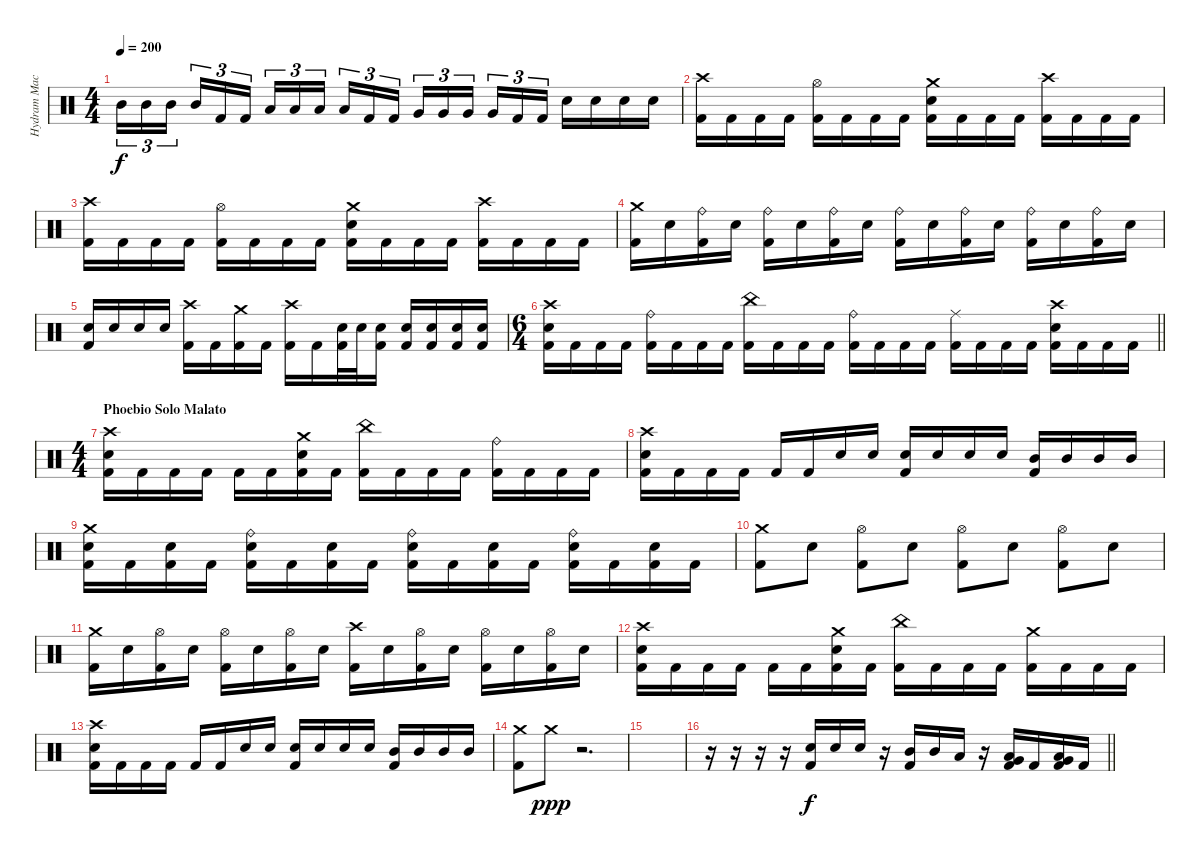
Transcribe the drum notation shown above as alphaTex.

\track ("Hydram Machine" "Hydram Mac") {instrument percussion}
\staff {score}
\articulation defaults
\ts (4 4)
\tempo 200
\clef neutral
\ks c "Mid Tom (hit)".16{tu (3 2) dy f} "Mid Tom (hit)".16{tu (3 2)} "Mid Tom (hit)".16{tu (3 2) beam splitsecondary} "Mid Tom (hit)".16{tu (3 2)} "Kick (hit) 2".16{tu (3 2)} "Kick (hit) 2".16{tu (3 2)} "Low Tom (hit)".16{tu (3 2)} "Low Tom (hit)".16{tu (3 2)} "Low Tom (hit)".16{tu (3 2) beam splitsecondary} "Low Tom (hit)".16{tu (3 2)} "Kick (hit) 2".16{tu (3 2)} "Kick (hit) 2".16{tu (3 2)} "Very Low Tom (hit)".16{tu (3 2)} "Very Low Tom (hit)".16{tu (3 2)} "Very Low Tom (hit)".16{tu (3 2) beam splitsecondary} "Very Low Tom (hit)".16{tu (3 2)} "Kick (hit) 2".16{tu (3 2)} "Kick (hit) 2".16{tu (3 2)} "Electric Snare (hit)".16 "Electric Snare (hit)".16 "Electric Snare (hit)".16 "Electric Snare (hit)".16
|
("Crash high (hit)" "Kick (hit) 2").16 "Kick (hit) 2".16 "Kick (hit) 2".16 "Kick (hit) 2".16 ("Hi-Hat (open)" "Kick (hit) 2").16 "Kick (hit) 2".16 "Kick (hit) 2".16 "Kick (hit) 2".16 ("Crash medium (hit)" "Electric Snare (hit)" "Kick (hit) 2").16 "Kick (hit) 2".16 "Kick (hit) 2".16 "Kick (hit) 2".16 ("Crash high (hit)" "Kick (hit) 2").16 "Kick (hit) 2".16 "Kick (hit) 2".16 "Kick (hit) 2".16 |
("Crash high (hit)" "Kick (hit) 2").16 "Kick (hit) 2".16 "Kick (hit) 2".16 "Kick (hit) 2".16 ("Hi-Hat (open)" "Kick (hit) 2").16 "Kick (hit) 2".16 "Kick (hit) 2".16 "Kick (hit) 2".16 ("Crash medium (hit)" "Electric Snare (hit)" "Kick (hit) 2").16 "Kick (hit) 2".16 "Kick (hit) 2".16 "Kick (hit) 2".16 ("Crash high (hit)" "Kick (hit) 2").16 "Kick (hit) 2".16 "Kick (hit) 2".16 "Kick (hit) 2".16 |
("Crash medium (hit)" "Kick (hit) 2").16 "Electric Snare (hit)".16 ("Ride (bell)" "Kick (hit) 2").16 "Electric Snare (hit)".16 ("Ride (bell)" "Kick (hit) 2").16 "Electric Snare (hit)".16 ("Ride (bell)" "Kick (hit) 2").16 "Electric Snare (hit)".16 ("Ride (bell)" "Kick (hit) 2").16 "Electric Snare (hit)".16 ("Ride (bell)" "Kick (hit) 2").16 "Electric Snare (hit)".16 ("Ride (bell)" "Kick (hit) 2").16 "Electric Snare (hit)".16 ("Ride (bell)" "Kick (hit) 2").16 "Electric Snare (hit)".16 |
("Electric Snare (hit)" "Kick (hit) 2").16 "Electric Snare (hit)".16 "Electric Snare (hit)".16 "Electric Snare (hit)".16 ("Crash high (hit)" "Kick (hit) 2").16 "Kick (hit) 2".16 ("Crash medium (hit)" "Kick (hit) 2").16 "Kick (hit) 2".16 ("Crash high (hit)" "Kick (hit) 2").16 "Kick (hit) 2".16 ("Electric Snare (hit)" "Kick (hit) 2").32 "Electric Snare (hit)".32 ("Electric Snare (hit)" "Kick (hit) 2").16 ("Electric Snare (hit)" "Kick (hit) 2").16 ("Electric Snare (hit)" "Kick (hit) 2").16 ("Electric Snare (hit)" "Kick (hit) 2").16 ("Electric Snare (hit)" "Kick (hit) 2").16 |
\ts (6 4)
\barLineRight lightlight
("Crash high (hit)" "Electric Snare (hit)" "Kick (hit) 2").16 "Kick (hit) 2".16 "Kick (hit) 2".16 "Kick (hit) 2".16 ("Ride (bell)" "Kick (hit) 2").16 "Kick (hit) 2".16 "Kick (hit) 2".16 "Kick (hit) 2".16 ("China (hit)" "Kick (hit) 2").16 "Kick (hit) 2".16 "Kick (hit) 2".16 "Kick (hit) 2".16 ("Ride (bell)" "Kick (hit) 2").16 "Kick (hit) 2".16 "Kick (hit) 2".16 "Kick (hit) 2".16 ("Ride (middle)" "Kick (hit) 2").16 "Kick (hit) 2".16 "Kick (hit) 2".16 "Kick (hit) 2".16 ("Crash high (hit)" "Electric Snare (hit)" "Kick (hit) 2").16 "Kick (hit) 2".16 "Kick (hit) 2".16 "Kick (hit) 2".16 |
\ts (4 4)
\section ("" "Phoebio Solo Malato")
("Crash high (hit)" "Electric Snare (hit)" "Kick (hit) 2").16 "Kick (hit) 2".16 "Kick (hit) 2".16 "Kick (hit) 2".16 "Kick (hit) 2".16 "Kick (hit) 2".16 ("Crash medium (hit)" "Electric Snare (hit)" "Kick (hit) 2").16 "Kick (hit) 2".16 ("China (hit)" "Kick (hit) 2").16 "Kick (hit) 2".16 "Kick (hit) 2".16 "Kick (hit) 2".16 ("Ride (bell)" "Kick (hit) 2").16 "Kick (hit) 2".16 "Kick (hit) 2".16 "Kick (hit) 2".16 |
("Crash high (hit)" "Electric Snare (hit)" "Kick (hit) 2").16 "Kick (hit) 2".16 "Kick (hit) 2".16 "Kick (hit) 2".16 "Kick (hit) 2".16 "Kick (hit) 2".16 "Electric Snare (hit)".16 "Electric Snare (hit)".16 ("Electric Snare (hit)" "Kick (hit) 2").16 "Electric Snare (hit)".16 "Electric Snare (hit)".16 "Electric Snare (hit)".16 ("Mid Tom (hit)" "Kick (hit) 2").16 "Mid Tom (hit)".16 "Mid Tom (hit)".16 "Mid Tom (hit)".16 |
("Crash medium (hit)" "Electric Snare (hit)" "Kick (hit) 2").16 "Kick (hit) 2".16 ("Electric Snare (hit)" "Kick (hit) 2").16 "Kick (hit) 2".16 ("Ride (bell)" "Electric Snare (hit)" "Kick (hit) 2").16 "Kick (hit) 2".16 ("Electric Snare (hit)" "Kick (hit) 2").16 "Kick (hit) 2".16 ("Ride (bell)" "Electric Snare (hit)" "Kick (hit) 2").16 "Kick (hit) 2".16 ("Electric Snare (hit)" "Kick (hit) 2").16 "Kick (hit) 2".16 ("Ride (bell)" "Electric Snare (hit)" "Kick (hit) 2").16 "Kick (hit) 2".16 ("Electric Snare (hit)" "Kick (hit) 2").16 "Kick (hit) 2".16 |
("Crash medium (hit)" "Kick (hit) 2").8 "Electric Snare (hit)".8 ("Hi-Hat (open)" "Kick (hit) 2").8 "Electric Snare (hit)".8 ("Hi-Hat (open)" "Kick (hit) 2").8 "Electric Snare (hit)".8 ("Hi-Hat (open)" "Kick (hit) 2").8 "Electric Snare (hit)".8 |
("Crash medium (hit)" "Kick (hit) 2").16 "Electric Snare (hit)".16 ("Hi-Hat (open)" "Kick (hit) 2").16 "Electric Snare (hit)".16 ("Hi-Hat (open)" "Kick (hit) 2").16 "Electric Snare (hit)".16 ("Hi-Hat (open)" "Kick (hit) 2").16 "Electric Snare (hit)".16 ("Crash high (hit)" "Kick (hit) 2").16 "Electric Snare (hit)".16 ("Hi-Hat (open)" "Kick (hit) 2").16 "Electric Snare (hit)".16 ("Hi-Hat (open)" "Kick (hit) 2").16 "Electric Snare (hit)".16 ("Hi-Hat (open)" "Kick (hit) 2").16 "Electric Snare (hit)".16 |
("Crash high (hit)" "Electric Snare (hit)" "Kick (hit) 2").16 "Kick (hit) 2".16 "Kick (hit) 2".16 "Kick (hit) 2".16 "Kick (hit) 2".16 "Kick (hit) 2".16 ("Crash medium (hit)" "Electric Snare (hit)" "Kick (hit) 2").16 "Kick (hit) 2".16 ("China (hit)" "Kick (hit) 2").16 "Kick (hit) 2".16 "Kick (hit) 2".16 "Kick (hit) 2".16 ("Crash medium (hit)" "Kick (hit) 2").16 "Kick (hit) 2".16 "Kick (hit) 2".16 "Kick (hit) 2".16 |
("Crash high (hit)" "Electric Snare (hit)" "Kick (hit) 2").16 "Kick (hit) 2".16 "Kick (hit) 2".16 "Kick (hit) 2".16 "Kick (hit) 2".16 "Kick (hit) 2".16 "Electric Snare (hit)".16 "Electric Snare (hit)".16 ("Electric Snare (hit)" "Kick (hit) 2").16 "Electric Snare (hit)".16 "Electric Snare (hit)".16 "Electric Snare (hit)".16 ("Mid Tom (hit)" "Kick (hit) 2").16 "Mid Tom (hit)".16 "Mid Tom (hit)".16 "Mid Tom (hit)".16 |
("Crash medium (hit)" "Kick (hit) 2").8 "Crash medium (hit)".8{dy ppp} r.2{d} |
|
\barLineRight lightlight
r.16 r.16 r.16 r.16 ("Electric Snare (hit)" "Kick (hit) 2").16{dy f} "Electric Snare (hit)".16 "Electric Snare (hit)".16 r.16 ("Mid Tom (hit)" "Kick (hit) 2").16 "Mid Tom (hit)".16 "Low Tom (hit)".16 r.16 ("Low Tom (hit)" "Very Low Tom (hit)" "Kick (hit) 2").16 "Kick (hit) 2".16 ("Low Tom (hit)" "Very Low Tom (hit)" "Kick (hit) 2").16 "Kick (hit) 2".16
